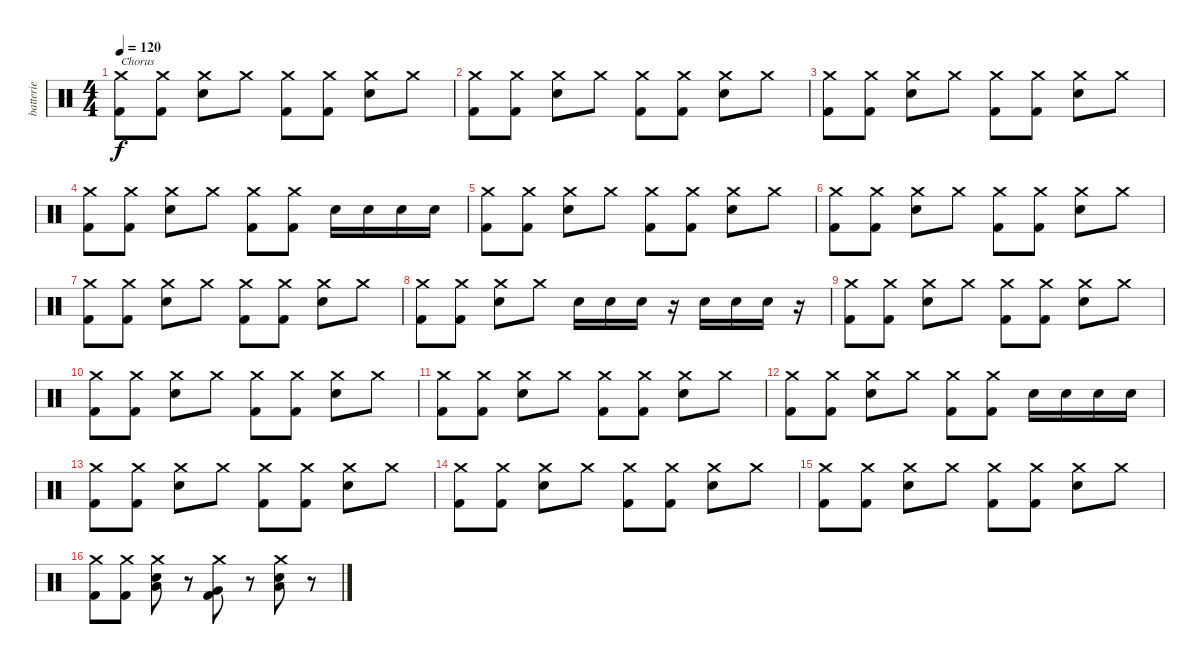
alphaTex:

\track ("batterie" "batterie") {instrument percussion}
\staff {score}
\articulation defaults
\ts (4 4)
\tempo 120
\clef neutral
\ks c
("Crash medium (hit)" "Kick (hit) 2").8{txt "Chorus" dy f} ("Crash medium (hit)" "Kick (hit) 2").8 ("Crash medium (hit)" "Electric Snare (hit)").8 "Crash medium (hit)".8 ("Crash medium (hit)" "Kick (hit) 2").8 ("Crash medium (hit)" "Kick (hit) 2").8 ("Crash medium (hit)" "Electric Snare (hit)").8 "Crash medium (hit)".8 |
("Crash medium (hit)" "Kick (hit) 2").8 ("Crash medium (hit)" "Kick (hit) 2").8 ("Crash medium (hit)" "Electric Snare (hit)").8 "Crash medium (hit)".8 ("Crash medium (hit)" "Kick (hit) 2").8 ("Crash medium (hit)" "Kick (hit) 2").8 ("Crash medium (hit)" "Electric Snare (hit)").8 "Crash medium (hit)".8 |
("Crash medium (hit)" "Kick (hit) 2").8 ("Crash medium (hit)" "Kick (hit) 2").8 ("Crash medium (hit)" "Electric Snare (hit)").8 "Crash medium (hit)".8 ("Crash medium (hit)" "Kick (hit) 2").8 ("Crash medium (hit)" "Kick (hit) 2").8 ("Crash medium (hit)" "Electric Snare (hit)").8 "Crash medium (hit)".8 |
("Crash medium (hit)" "Kick (hit) 2").8 ("Crash medium (hit)" "Kick (hit) 2").8 ("Crash medium (hit)" "Electric Snare (hit)").8 "Crash medium (hit)".8 ("Crash medium (hit)" "Kick (hit) 2").8 ("Crash medium (hit)" "Kick (hit) 2").8 "Electric Snare (hit)".16 "Electric Snare (hit)".16 "Electric Snare (hit)".16 "Electric Snare (hit)".16 |
("Crash medium (hit)" "Kick (hit) 2").8 ("Crash medium (hit)" "Kick (hit) 2").8 ("Crash medium (hit)" "Electric Snare (hit)").8 "Crash medium (hit)".8 ("Crash medium (hit)" "Kick (hit) 2").8 ("Crash medium (hit)" "Kick (hit) 2").8 ("Crash medium (hit)" "Electric Snare (hit)").8 "Crash medium (hit)".8 |
("Crash medium (hit)" "Kick (hit) 2").8 ("Crash medium (hit)" "Kick (hit) 2").8 ("Crash medium (hit)" "Electric Snare (hit)").8 "Crash medium (hit)".8 ("Crash medium (hit)" "Kick (hit) 2").8 ("Crash medium (hit)" "Kick (hit) 2").8 ("Crash medium (hit)" "Electric Snare (hit)").8 "Crash medium (hit)".8 |
("Crash medium (hit)" "Kick (hit) 2").8 ("Crash medium (hit)" "Kick (hit) 2").8 ("Crash medium (hit)" "Electric Snare (hit)").8 "Crash medium (hit)".8 ("Crash medium (hit)" "Kick (hit) 2").8 ("Crash medium (hit)" "Kick (hit) 2").8 ("Crash medium (hit)" "Electric Snare (hit)").8 "Crash medium (hit)".8 |
("Crash medium (hit)" "Kick (hit) 2").8 ("Crash medium (hit)" "Kick (hit) 2").8 ("Crash medium (hit)" "Electric Snare (hit)").8 "Crash medium (hit)".8 "Electric Snare (hit)".16 "Electric Snare (hit)".16 "Electric Snare (hit)".16 r.16 "Electric Snare (hit)".16 "Electric Snare (hit)".16 "Electric Snare (hit)".16 r.16 |
("Crash medium (hit)" "Kick (hit) 2").8 ("Crash medium (hit)" "Kick (hit) 2").8 ("Crash medium (hit)" "Electric Snare (hit)").8 "Crash medium (hit)".8 ("Crash medium (hit)" "Kick (hit) 2").8 ("Crash medium (hit)" "Kick (hit) 2").8 ("Crash medium (hit)" "Electric Snare (hit)").8 "Crash medium (hit)".8 |
("Crash medium (hit)" "Kick (hit) 2").8 ("Crash medium (hit)" "Kick (hit) 2").8 ("Crash medium (hit)" "Electric Snare (hit)").8 "Crash medium (hit)".8 ("Crash medium (hit)" "Kick (hit) 2").8 ("Crash medium (hit)" "Kick (hit) 2").8 ("Crash medium (hit)" "Electric Snare (hit)").8 "Crash medium (hit)".8 |
("Crash medium (hit)" "Kick (hit) 2").8 ("Crash medium (hit)" "Kick (hit) 2").8 ("Crash medium (hit)" "Electric Snare (hit)").8 "Crash medium (hit)".8 ("Crash medium (hit)" "Kick (hit) 2").8 ("Crash medium (hit)" "Kick (hit) 2").8 ("Crash medium (hit)" "Electric Snare (hit)").8 "Crash medium (hit)".8 |
("Crash medium (hit)" "Kick (hit) 2").8 ("Crash medium (hit)" "Kick (hit) 2").8 ("Crash medium (hit)" "Electric Snare (hit)").8 "Crash medium (hit)".8 ("Crash medium (hit)" "Kick (hit) 2").8 ("Crash medium (hit)" "Kick (hit) 2").8 "Electric Snare (hit)".16 "Electric Snare (hit)".16 "Electric Snare (hit)".16 "Electric Snare (hit)".16 |
("Crash medium (hit)" "Kick (hit) 2").8 ("Crash medium (hit)" "Kick (hit) 2").8 ("Crash medium (hit)" "Electric Snare (hit)").8 "Crash medium (hit)".8 ("Crash medium (hit)" "Kick (hit) 2").8 ("Crash medium (hit)" "Kick (hit) 2").8 ("Crash medium (hit)" "Electric Snare (hit)").8 "Crash medium (hit)".8 |
("Crash medium (hit)" "Kick (hit) 2").8 ("Crash medium (hit)" "Kick (hit) 2").8 ("Crash medium (hit)" "Electric Snare (hit)").8 "Crash medium (hit)".8 ("Crash medium (hit)" "Kick (hit) 2").8 ("Crash medium (hit)" "Kick (hit) 2").8 ("Crash medium (hit)" "Electric Snare (hit)").8 "Crash medium (hit)".8 |
("Crash medium (hit)" "Kick (hit) 2").8 ("Crash medium (hit)" "Kick (hit) 2").8 ("Crash medium (hit)" "Electric Snare (hit)").8 "Crash medium (hit)".8 ("Crash medium (hit)" "Kick (hit) 2").8 ("Crash medium (hit)" "Kick (hit) 2").8 ("Crash medium (hit)" "Electric Snare (hit)").8 "Crash medium (hit)".8 |
("Crash medium (hit)" "Kick (hit) 2").8 ("Crash medium (hit)" "Kick (hit) 2").8 ("Low Floor Tom (hit)" "Crash medium (hit)" "Electric Snare (hit)").8 r.8 ("Very Low Tom (hit)" "Crash medium (hit)" "Kick (hit) 2").8 r.8 ("Low Tom (hit)" "Crash medium (hit)" "Electric Snare (hit)").8 r.8
